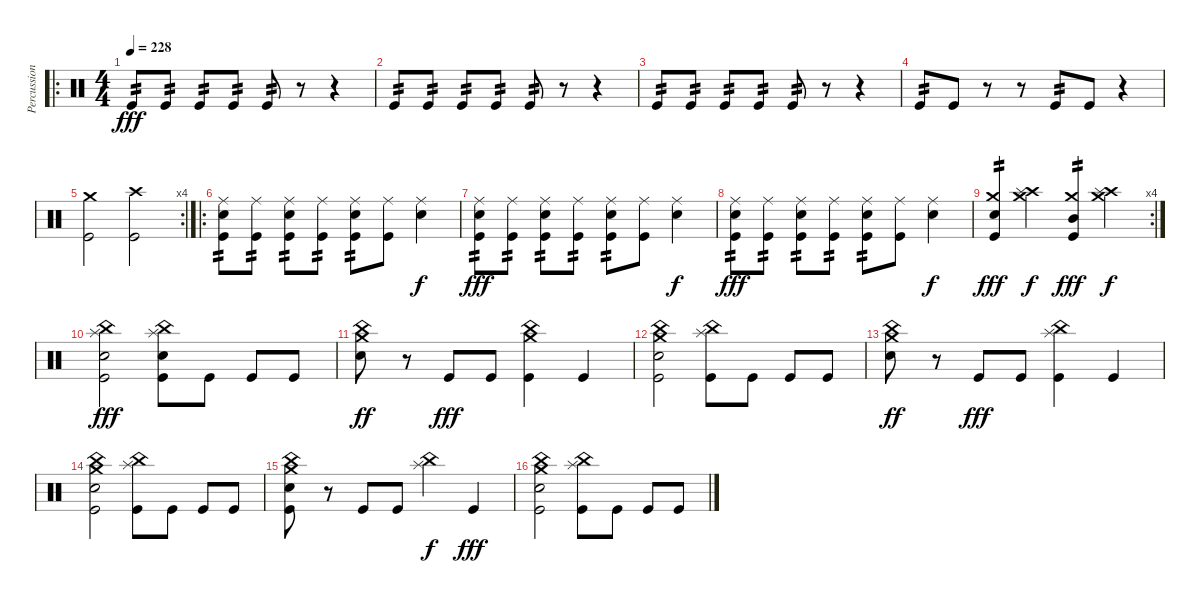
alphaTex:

\track ("Percussion" "Percussion") {instrument percussion}
\staff {score}
\articulation defaults
\ro
\ts (4 4)
\tempo 228
\clef neutral
\ks c "Kick (hit)".8{tp 2 dy fff} "Kick (hit)".8{tp 2} "Kick (hit)".8{tp 2} "Kick (hit)".8{tp 2} "Kick (hit)".8{tp 2}
r.8 r.4 |
"Kick (hit)".8{tp 2} "Kick (hit)".8{tp 2} "Kick (hit)".8{tp 2} "Kick (hit)".8{tp 2} "Kick (hit)".8{tp 2} r.8 r.4 |
"Kick (hit)".8{tp 2} "Kick (hit)".8{tp 2} "Kick (hit)".8{tp 2} "Kick (hit)".8{tp 2} "Kick (hit)".8{tp 2} r.8 r.4 |
"Kick (hit)".8{tp 2} "Kick (hit)".8 r.8 r.8 "Kick (hit)".8{tp 2} "Kick (hit)".8 r.4 |
\rc 4
("Crash medium (hit)" "Kick (hit)").2 ("Crash high (hit)" "Kick (hit)").2 |
\ro
("Ride (middle)" "Snare (hit) 2" "Kick (hit)").8{tp 2} ("Ride (middle)" "Kick (hit)").8{tp 2} ("Ride (middle)" "Snare (hit) 2" "Kick (hit)").8{tp 2} ("Ride (middle)" "Kick (hit)").8{tp 2} ("Ride (middle)" "Snare (hit) 2" "Kick (hit)").8{tp 2} ("Ride (middle)" "Kick (hit)").8 ("Ride (middle)" "Snare (hit) 2").4{dy f} |
("Ride (middle)" "Snare (hit) 2" "Kick (hit)").8{tp 2 dy fff} ("Ride (middle)" "Kick (hit)").8{tp 2} ("Ride (middle)" "Snare (hit) 2" "Kick (hit)").8{tp 2} ("Ride (middle)" "Kick (hit)").8{tp 2} ("Ride (middle)" "Snare (hit) 2" "Kick (hit)").8{tp 2} ("Ride (middle)" "Kick (hit)").8 ("Ride (middle)" "Snare (hit) 2").4{dy f} |
("Ride (middle)" "Snare (hit) 2" "Kick (hit)").8{tp 2 dy fff} ("Ride (middle)" "Kick (hit)").8{tp 2} ("Ride (middle)" "Snare (hit) 2" "Kick (hit)").8{tp 2} ("Ride (middle)" "Kick (hit)").8{tp 2} ("Ride (middle)" "Snare (hit) 2" "Kick (hit)").8{tp 2} ("Ride (middle)" "Kick (hit)").8 ("Ride (middle)" "Snare (hit) 2").4{dy f} |
\rc 4
("Crash medium (hit)" "Electric Snare (hit)" "Kick (hit)").4{tp 2 dy fff} ("Crash high (hit)" "Crash medium (hit)" "Splash (hit)").4{dy f} ("Crash medium (hit)" "Mid Tom (hit)" "Kick (hit)").4{tp 2 dy fff} ("Crash high (hit)" "Crash medium (hit)" "Splash (hit)").4{dy f} |
("Splash (hit)" "China (hit)" "Electric Snare (hit)" "Kick (hit)").2{dy fff} ("China (hit)" "Splash (hit)" "Electric Snare (hit)" "Kick (hit)").8 "Kick (hit)".8 "Kick (hit)".8 "Kick (hit)".8 |
("China (hit)" "Crash medium (hit)" "Electric Snare (hit)").8{dy ff} r.8 "Kick (hit)".8{dy fff} "Kick (hit)".8 ("China (hit)" "Crash medium (hit)" "Kick (hit)").4 "Kick (hit)".4 |
("China (hit)" "Crash medium (hit)" "Electric Snare (hit)" "Kick (hit)").2 ("China (hit)" "Splash (hit)" "Kick (hit)").8 "Kick (hit)".8 "Kick (hit)".8 "Kick (hit)".8 |
("China (hit)" "Crash medium (hit)" "Electric Snare (hit)").8{dy ff} r.8 "Kick (hit)".8{dy fff} "Kick (hit)".8 ("China (hit)" "Splash (hit)" "Kick (hit)").4 "Kick (hit)".4 |
("China (hit)" "Crash medium (hit)" "Electric Snare (hit)" "Kick (hit)").2 ("China (hit)" "Splash (hit)" "Kick (hit)").8 "Kick (hit)".8 "Kick (hit)".8 "Kick (hit)".8 |
("China (hit)" "Crash medium (hit)" "Electric Snare (hit)" "Kick (hit)").8 r.8 "Kick (hit)".8 "Kick (hit)".8 ("China (hit)" "Splash (hit)").4{dy f} "Kick (hit)".4{dy fff} |
("China (hit)" "Crash medium (hit)" "Electric Snare (hit)" "Kick (hit)").2 ("China (hit)" "Splash (hit)" "Kick (hit)").8 "Kick (hit)".8 "Kick (hit)".8 "Kick (hit)".8
